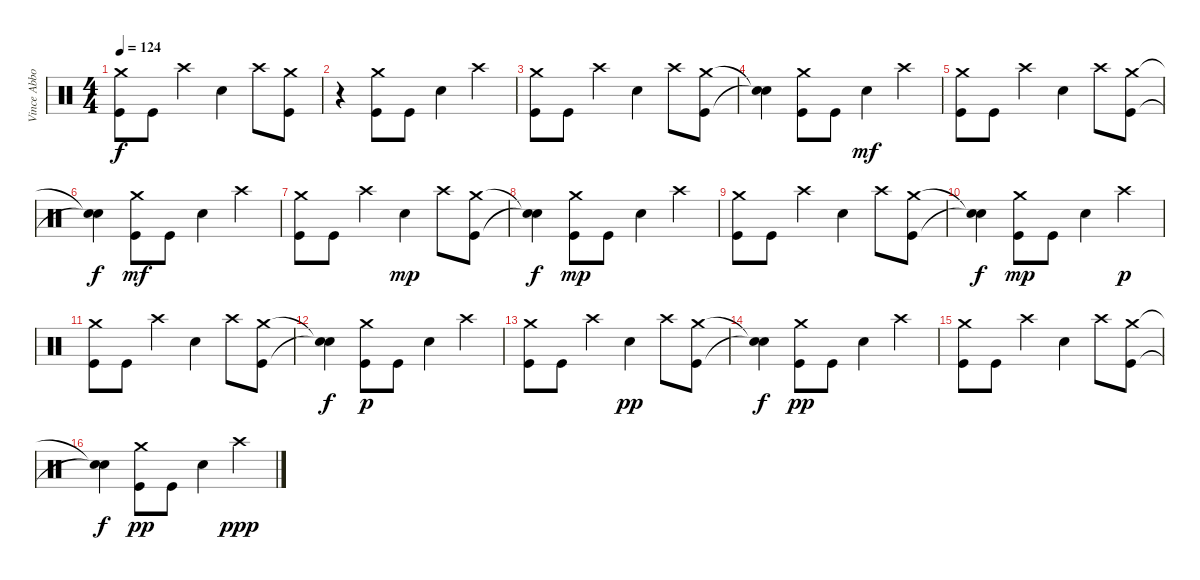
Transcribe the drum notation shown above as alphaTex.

\track ("Vince Abbott (Drums)" "Vince Abbo") {instrument percussion}
\staff {score}
\articulation defaults
\ts (4 4)
\tempo 124
\clef neutral
\ks c
("Crash medium (hit)" "Kick (hit)").8{dy f} "Kick (hit)".8 "Crash high (hit)".4 "Electric Snare (hit)".4 "Crash high (hit)".8 ("Kick (hit)" "Crash medium (hit)").8 |
r.4 ("Crash medium (hit)" "Kick (hit)").8 "Kick (hit)".8 "Electric Snare (hit)".4 "Crash high (hit)".4 |
("Crash medium (hit)" "Kick (hit)").8 "Kick (hit)".8 "Crash high (hit)".4 "Electric Snare (hit)".4 "Crash high (hit)".8 ("Kick (hit)" "Crash medium (hit)").8 |
("Snare (hit)"{t} "Snare (hit)"{t}).4 ("Crash medium (hit)" "Kick (hit)").8 "Kick (hit)".8 "Electric Snare (hit)".4{dy mf} "Crash high (hit)".4 |
("Crash medium (hit)" "Kick (hit)").8 "Kick (hit)".8 "Crash high (hit)".4 "Electric Snare (hit)".4 "Crash high (hit)".8 ("Kick (hit)" "Crash medium (hit)").8 |
("Snare (hit)"{t} "Snare (hit)"{t}).4{dy f} ("Crash medium (hit)" "Kick (hit)").8{dy mf} "Kick (hit)".8 "Electric Snare (hit)".4 "Crash high (hit)".4 |
("Crash medium (hit)" "Kick (hit)").8 "Kick (hit)".8 "Crash high (hit)".4 "Electric Snare (hit)".4{dy mp} "Crash high (hit)".8 ("Kick (hit)" "Crash medium (hit)").8 |
("Snare (hit)"{t} "Snare (hit)"{t}).4{dy f} ("Crash medium (hit)" "Kick (hit)").8{dy mp} "Kick (hit)".8 "Electric Snare (hit)".4 "Crash high (hit)".4 |
("Crash medium (hit)" "Kick (hit)").8 "Kick (hit)".8 "Crash high (hit)".4 "Electric Snare (hit)".4 "Crash high (hit)".8 ("Kick (hit)" "Crash medium (hit)").8 |
("Snare (hit)"{t} "Snare (hit)"{t}).4{dy f} ("Crash medium (hit)" "Kick (hit)").8{dy mp} "Kick (hit)".8 "Electric Snare (hit)".4 "Crash high (hit)".4{dy p} |
("Crash medium (hit)" "Kick (hit)").8 "Kick (hit)".8 "Crash high (hit)".4 "Electric Snare (hit)".4 "Crash high (hit)".8 ("Kick (hit)" "Crash medium (hit)").8 |
("Snare (hit)"{t} "Snare (hit)"{t}).4{dy f} ("Crash medium (hit)" "Kick (hit)").8{dy p} "Kick (hit)".8 "Electric Snare (hit)".4 "Crash high (hit)".4 |
("Crash medium (hit)" "Kick (hit)").8 "Kick (hit)".8 "Crash high (hit)".4 "Electric Snare (hit)".4{dy pp} "Crash high (hit)".8 ("Kick (hit)" "Crash medium (hit)").8 |
("Snare (hit)"{t} "Snare (hit)"{t}).4{dy f} ("Crash medium (hit)" "Kick (hit)").8{dy pp} "Kick (hit)".8 "Electric Snare (hit)".4 "Crash high (hit)".4 |
("Crash medium (hit)" "Kick (hit)").8 "Kick (hit)".8 "Crash high (hit)".4 "Electric Snare (hit)".4 "Crash high (hit)".8 ("Kick (hit)" "Crash medium (hit)").8 |
("Snare (hit)"{t} "Snare (hit)"{t}).4{dy f} ("Crash medium (hit)" "Kick (hit)").8{dy pp} "Kick (hit)".8 "Electric Snare (hit)".4 "Crash high (hit)".4{dy ppp}
